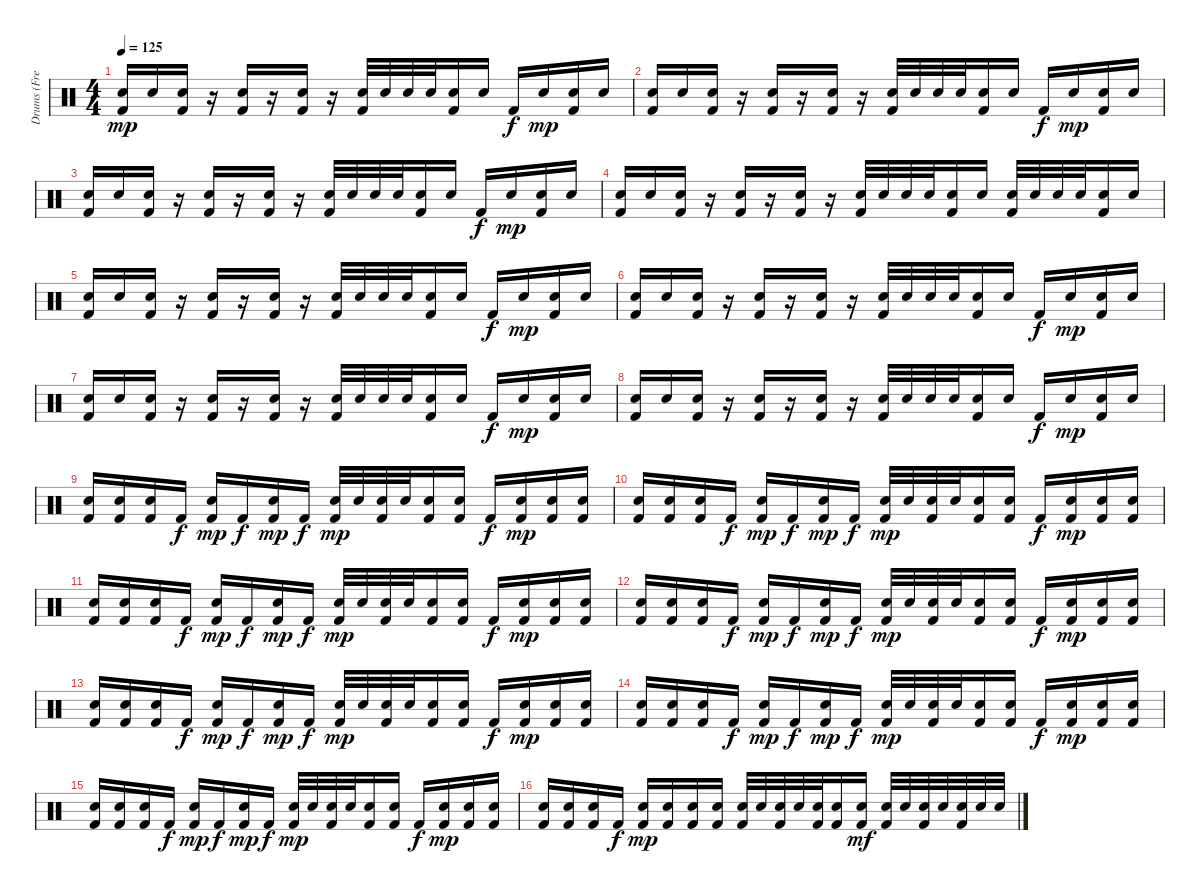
\track ("Drums (Fredrik Andersson)" "Drums (Fre") {instrument percussion}
\staff {score}
\articulation defaults
\ts (4 4)
\tempo 125
\clef neutral
\ks c
("Snare (hit) 2" "Kick (hit) 2").16{dy mp} "Snare (hit) 2".16 ("Snare (hit) 2" "Kick (hit) 2").16 r.16 ("Snare (hit) 2" "Kick (hit) 2").16 r.16 ("Snare (hit) 2" "Kick (hit) 2").16 r.16 ("Snare (hit) 2" "Kick (hit) 2").32 "Snare (hit) 2".32 "Snare (hit) 2".32 "Snare (hit) 2".32 ("Snare (hit) 2" "Kick (hit) 2").16 "Snare (hit) 2".16 "Kick (hit) 2".16{dy f} "Snare (hit) 2".16{dy mp} ("Snare (hit) 2" "Kick (hit) 2").16 "Snare (hit) 2".16 |
("Snare (hit) 2" "Kick (hit) 2").16 "Snare (hit) 2".16 ("Snare (hit) 2" "Kick (hit) 2").16 r.16 ("Snare (hit) 2" "Kick (hit) 2").16 r.16 ("Snare (hit) 2" "Kick (hit) 2").16 r.16 ("Snare (hit) 2" "Kick (hit) 2").32 "Snare (hit) 2".32 "Snare (hit) 2".32 "Snare (hit) 2".32 ("Snare (hit) 2" "Kick (hit) 2").16 "Snare (hit) 2".16 "Kick (hit) 2".16{dy f} "Snare (hit) 2".16{dy mp} ("Snare (hit) 2" "Kick (hit) 2").16 "Snare (hit) 2".16 |
("Snare (hit) 2" "Kick (hit) 2").16 "Snare (hit) 2".16 ("Snare (hit) 2" "Kick (hit) 2").16 r.16 ("Snare (hit) 2" "Kick (hit) 2").16 r.16 ("Snare (hit) 2" "Kick (hit) 2").16 r.16 ("Snare (hit) 2" "Kick (hit) 2").32 "Snare (hit) 2".32 "Snare (hit) 2".32 "Snare (hit) 2".32 ("Snare (hit) 2" "Kick (hit) 2").16 "Snare (hit) 2".16 "Kick (hit) 2".16{dy f} "Snare (hit) 2".16{dy mp} ("Snare (hit) 2" "Kick (hit) 2").16 "Snare (hit) 2".16 |
("Snare (hit) 2" "Kick (hit) 2").16 "Snare (hit) 2".16 ("Snare (hit) 2" "Kick (hit) 2").16 r.16 ("Snare (hit) 2" "Kick (hit) 2").16 r.16 ("Snare (hit) 2" "Kick (hit) 2").16 r.16 ("Snare (hit) 2" "Kick (hit) 2").32 "Snare (hit) 2".32 "Snare (hit) 2".32 "Snare (hit) 2".32 ("Snare (hit) 2" "Kick (hit) 2").16 "Snare (hit) 2".16 ("Snare (hit) 2" "Kick (hit) 2").32 "Snare (hit) 2".32 "Snare (hit) 2".32 "Snare (hit) 2".32 ("Snare (hit) 2" "Kick (hit) 2").16 "Snare (hit) 2".16 |
("Snare (hit) 2" "Kick (hit) 2").16 "Snare (hit) 2".16 ("Snare (hit) 2" "Kick (hit) 2").16 r.16 ("Snare (hit) 2" "Kick (hit) 2").16 r.16 ("Snare (hit) 2" "Kick (hit) 2").16 r.16 ("Snare (hit) 2" "Kick (hit) 2").32 "Snare (hit) 2".32 "Snare (hit) 2".32 "Snare (hit) 2".32 ("Snare (hit) 2" "Kick (hit) 2").16 "Snare (hit) 2".16 "Kick (hit) 2".16{dy f} "Snare (hit) 2".16{dy mp} ("Snare (hit) 2" "Kick (hit) 2").16 "Snare (hit) 2".16 |
("Snare (hit) 2" "Kick (hit) 2").16 "Snare (hit) 2".16 ("Snare (hit) 2" "Kick (hit) 2").16 r.16 ("Snare (hit) 2" "Kick (hit) 2").16 r.16 ("Snare (hit) 2" "Kick (hit) 2").16 r.16 ("Snare (hit) 2" "Kick (hit) 2").32 "Snare (hit) 2".32 "Snare (hit) 2".32 "Snare (hit) 2".32 ("Snare (hit) 2" "Kick (hit) 2").16 "Snare (hit) 2".16 "Kick (hit) 2".16{dy f} "Snare (hit) 2".16{dy mp} ("Snare (hit) 2" "Kick (hit) 2").16 "Snare (hit) 2".16 |
("Snare (hit) 2" "Kick (hit) 2").16 "Snare (hit) 2".16 ("Snare (hit) 2" "Kick (hit) 2").16 r.16 ("Snare (hit) 2" "Kick (hit) 2").16 r.16 ("Snare (hit) 2" "Kick (hit) 2").16 r.16 ("Snare (hit) 2" "Kick (hit) 2").32 "Snare (hit) 2".32 "Snare (hit) 2".32 "Snare (hit) 2".32 ("Snare (hit) 2" "Kick (hit) 2").16 "Snare (hit) 2".16 "Kick (hit) 2".16{dy f} "Snare (hit) 2".16{dy mp} ("Snare (hit) 2" "Kick (hit) 2").16 "Snare (hit) 2".16 |
("Snare (hit) 2" "Kick (hit) 2").16 "Snare (hit) 2".16 ("Snare (hit) 2" "Kick (hit) 2").16 r.16 ("Snare (hit) 2" "Kick (hit) 2").16 r.16 ("Snare (hit) 2" "Kick (hit) 2").16 r.16 ("Snare (hit) 2" "Kick (hit) 2").32 "Snare (hit) 2".32 "Snare (hit) 2".32 "Snare (hit) 2".32 ("Snare (hit) 2" "Kick (hit) 2").16 "Snare (hit) 2".16 "Kick (hit) 2".16{dy f} "Snare (hit) 2".16{dy mp} ("Snare (hit) 2" "Kick (hit) 2").16 "Snare (hit) 2".16 |
("Snare (hit) 2" "Kick (hit) 2").16 ("Snare (hit) 2" "Kick (hit) 2").16 ("Snare (hit) 2" "Kick (hit) 2").16 "Kick (hit) 2".16{dy f} ("Snare (hit) 2" "Kick (hit) 2").16{dy mp} "Kick (hit) 2".16{dy f} ("Snare (hit) 2" "Kick (hit) 2").16{dy mp} "Kick (hit) 2".16{dy f} ("Snare (hit) 2" "Kick (hit) 2").32{dy mp} "Snare (hit) 2".32 ("Snare (hit) 2" "Kick (hit) 2").32 "Snare (hit) 2".32 ("Snare (hit) 2" "Kick (hit) 2").16 ("Snare (hit) 2" "Kick (hit) 2").16 "Kick (hit) 2".16{dy f} ("Snare (hit) 2" "Kick (hit) 2").16{dy mp} ("Snare (hit) 2" "Kick (hit) 2").16 ("Snare (hit) 2" "Kick (hit) 2").16 |
("Snare (hit) 2" "Kick (hit) 2").16 ("Snare (hit) 2" "Kick (hit) 2").16 ("Snare (hit) 2" "Kick (hit) 2").16 "Kick (hit) 2".16{dy f} ("Snare (hit) 2" "Kick (hit) 2").16{dy mp} "Kick (hit) 2".16{dy f} ("Snare (hit) 2" "Kick (hit) 2").16{dy mp} "Kick (hit) 2".16{dy f} ("Snare (hit) 2" "Kick (hit) 2").32{dy mp} "Snare (hit) 2".32 ("Snare (hit) 2" "Kick (hit) 2").32 "Snare (hit) 2".32 ("Snare (hit) 2" "Kick (hit) 2").16 ("Snare (hit) 2" "Kick (hit) 2").16 "Kick (hit) 2".16{dy f} ("Snare (hit) 2" "Kick (hit) 2").16{dy mp} ("Snare (hit) 2" "Kick (hit) 2").16 ("Snare (hit) 2" "Kick (hit) 2").16 |
("Snare (hit) 2" "Kick (hit) 2").16 ("Snare (hit) 2" "Kick (hit) 2").16 ("Snare (hit) 2" "Kick (hit) 2").16 "Kick (hit) 2".16{dy f} ("Snare (hit) 2" "Kick (hit) 2").16{dy mp} "Kick (hit) 2".16{dy f} ("Snare (hit) 2" "Kick (hit) 2").16{dy mp} "Kick (hit) 2".16{dy f} ("Snare (hit) 2" "Kick (hit) 2").32{dy mp} "Snare (hit) 2".32 ("Snare (hit) 2" "Kick (hit) 2").32 "Snare (hit) 2".32 ("Snare (hit) 2" "Kick (hit) 2").16 ("Snare (hit) 2" "Kick (hit) 2").16 "Kick (hit) 2".16{dy f} ("Snare (hit) 2" "Kick (hit) 2").16{dy mp} ("Snare (hit) 2" "Kick (hit) 2").16 ("Snare (hit) 2" "Kick (hit) 2").16 |
("Snare (hit) 2" "Kick (hit) 2").16 ("Snare (hit) 2" "Kick (hit) 2").16 ("Snare (hit) 2" "Kick (hit) 2").16 "Kick (hit) 2".16{dy f} ("Snare (hit) 2" "Kick (hit) 2").16{dy mp} "Kick (hit) 2".16{dy f} ("Snare (hit) 2" "Kick (hit) 2").16{dy mp} "Kick (hit) 2".16{dy f} ("Snare (hit) 2" "Kick (hit) 2").32{dy mp} "Snare (hit) 2".32 ("Snare (hit) 2" "Kick (hit) 2").32 "Snare (hit) 2".32 ("Snare (hit) 2" "Kick (hit) 2").16 ("Snare (hit) 2" "Kick (hit) 2").16 "Kick (hit) 2".16{dy f} ("Snare (hit) 2" "Kick (hit) 2").16{dy mp} ("Snare (hit) 2" "Kick (hit) 2").16 ("Snare (hit) 2" "Kick (hit) 2").16 |
("Snare (hit) 2" "Kick (hit) 2").16 ("Snare (hit) 2" "Kick (hit) 2").16 ("Snare (hit) 2" "Kick (hit) 2").16 "Kick (hit) 2".16{dy f} ("Snare (hit) 2" "Kick (hit) 2").16{dy mp} "Kick (hit) 2".16{dy f} ("Snare (hit) 2" "Kick (hit) 2").16{dy mp} "Kick (hit) 2".16{dy f} ("Snare (hit) 2" "Kick (hit) 2").32{dy mp} "Snare (hit) 2".32 ("Snare (hit) 2" "Kick (hit) 2").32 "Snare (hit) 2".32 ("Snare (hit) 2" "Kick (hit) 2").16 ("Snare (hit) 2" "Kick (hit) 2").16 "Kick (hit) 2".16{dy f} ("Snare (hit) 2" "Kick (hit) 2").16{dy mp} ("Snare (hit) 2" "Kick (hit) 2").16 ("Snare (hit) 2" "Kick (hit) 2").16 |
("Snare (hit) 2" "Kick (hit) 2").16 ("Snare (hit) 2" "Kick (hit) 2").16 ("Snare (hit) 2" "Kick (hit) 2").16 "Kick (hit) 2".16{dy f} ("Snare (hit) 2" "Kick (hit) 2").16{dy mp} "Kick (hit) 2".16{dy f} ("Snare (hit) 2" "Kick (hit) 2").16{dy mp} "Kick (hit) 2".16{dy f} ("Snare (hit) 2" "Kick (hit) 2").32{dy mp} "Snare (hit) 2".32 ("Snare (hit) 2" "Kick (hit) 2").32 "Snare (hit) 2".32 ("Snare (hit) 2" "Kick (hit) 2").16 ("Snare (hit) 2" "Kick (hit) 2").16 "Kick (hit) 2".16{dy f} ("Snare (hit) 2" "Kick (hit) 2").16{dy mp} ("Snare (hit) 2" "Kick (hit) 2").16 ("Snare (hit) 2" "Kick (hit) 2").16 |
("Snare (hit) 2" "Kick (hit) 2").16 ("Snare (hit) 2" "Kick (hit) 2").16 ("Snare (hit) 2" "Kick (hit) 2").16 "Kick (hit) 2".16{dy f} ("Snare (hit) 2" "Kick (hit) 2").16{dy mp} "Kick (hit) 2".16{dy f} ("Snare (hit) 2" "Kick (hit) 2").16{dy mp} "Kick (hit) 2".16{dy f} ("Snare (hit) 2" "Kick (hit) 2").32{dy mp} "Snare (hit) 2".32 ("Snare (hit) 2" "Kick (hit) 2").32 "Snare (hit) 2".32 ("Snare (hit) 2" "Kick (hit) 2").16 ("Snare (hit) 2" "Kick (hit) 2").16 "Kick (hit) 2".16{dy f} ("Snare (hit) 2" "Kick (hit) 2").16{dy mp} ("Snare (hit) 2" "Kick (hit) 2").16 ("Snare (hit) 2" "Kick (hit) 2").16 |
("Snare (hit) 2" "Kick (hit) 2").16 ("Snare (hit) 2" "Kick (hit) 2").16 ("Snare (hit) 2" "Kick (hit) 2").16 "Kick (hit) 2".16{dy f} ("Snare (hit) 2" "Kick (hit) 2").16{dy mp} ("Snare (hit) 2" "Kick (hit) 2").16 ("Snare (hit) 2" "Kick (hit) 2").16 ("Snare (hit) 2" "Kick (hit) 2").16 ("Snare (hit) 2" "Kick (hit) 2").32 "Snare (hit) 2".32 ("Snare (hit) 2" "Kick (hit) 2").32 "Snare (hit) 2".32 ("Snare (hit) 2" "Kick (hit) 2").32 ("Snare (hit) 2" "Kick (hit) 2").16 ("Snare (hit) 2" "Kick (hit) 2").16{dy mf} ("Snare (hit) 2" "Kick (hit) 2").32 "Snare (hit) 2".32 ("Snare (hit) 2" "Kick (hit) 2").32 "Snare (hit) 2".32 ("Snare (hit) 2" "Kick (hit) 2").32 "Snare (hit) 2".32 "Snare (hit) 2".32
